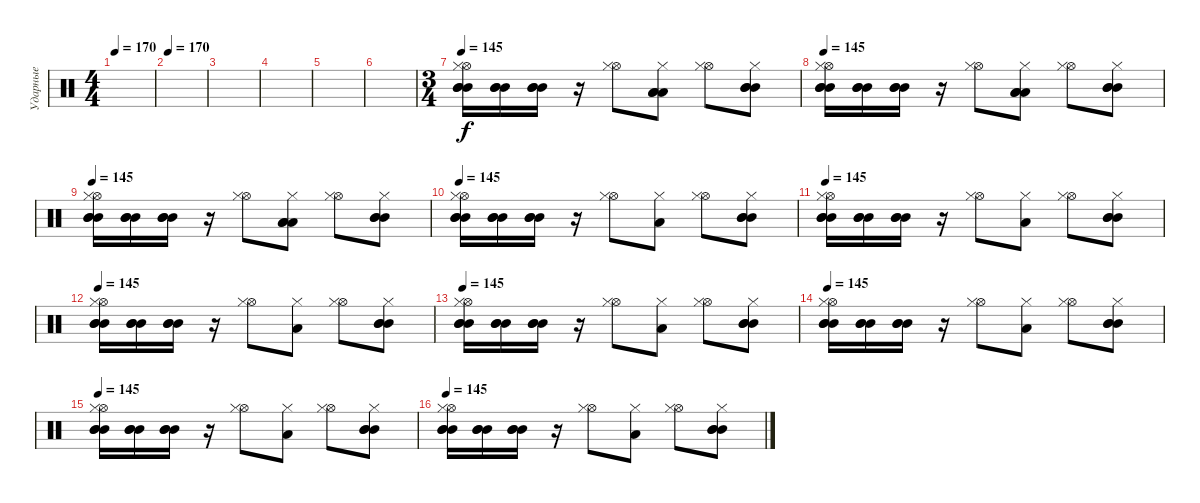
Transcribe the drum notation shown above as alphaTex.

\track ("Ударные" "Ударные") {instrument percussion}
\staff {score}
\articulation defaults
\ts (4 4)
\tempo 170
\clef neutral
\ks c
|
\tempo 170
|
|
|
|
|
\ts (3 4)
\tempo 145
("Hi-Hat (open)" "Mid Tom (hit)" "Mid Tom (hit)" "Mid Tom (hit)" "Hi-Hat (closed)").16{volume 16} ("Mid Tom (hit)" "Mid Tom (hit)" "Mid Tom (hit)").16 ("Mid Tom (hit)" "Mid Tom (hit)" "Mid Tom (hit)").16 r.16 ("Hi-Hat (open)" "Hi-Hat (closed)").8 ("Low Tom (hit)" "Low Tom (hit)" "Low Tom (hit)" "Hi-Hat (closed)").8 ("Hi-Hat (open)" "Hi-Hat (closed)").8 ("Mid Tom (hit)" "Mid Tom (hit)" "Mid Tom (hit)" "Hi-Hat (closed)").8 |
\tempo 145
("Hi-Hat (open)" "Mid Tom (hit)" "Mid Tom (hit)" "Mid Tom (hit)" "Hi-Hat (closed)").16 ("Mid Tom (hit)" "Mid Tom (hit)" "Mid Tom (hit)").16 ("Mid Tom (hit)" "Mid Tom (hit)" "Mid Tom (hit)").16 r.16 ("Hi-Hat (open)" "Hi-Hat (closed)").8 ("Low Tom (hit)" "Low Tom (hit)" "Low Tom (hit)" "Hi-Hat (closed)").8 ("Hi-Hat (open)" "Hi-Hat (closed)").8 ("Mid Tom (hit)" "Mid Tom (hit)" "Mid Tom (hit)" "Hi-Hat (closed)").8 |
\tempo 145
("Hi-Hat (open)" "Mid Tom (hit)" "Mid Tom (hit)" "Mid Tom (hit)" "Hi-Hat (closed)").16 ("Mid Tom (hit)" "Mid Tom (hit)" "Mid Tom (hit)").16 ("Mid Tom (hit)" "Mid Tom (hit)" "Mid Tom (hit)").16 r.16 ("Hi-Hat (open)" "Hi-Hat (closed)").8 ("Low Tom (hit)" "Low Tom (hit)" "Low Tom (hit)" "Hi-Hat (closed)").8 ("Hi-Hat (open)" "Hi-Hat (closed)").8 ("Mid Tom (hit)" "Mid Tom (hit)" "Mid Tom (hit)" "Hi-Hat (closed)").8 |
\tempo 145
("Hi-Hat (open)" "Mid Tom (hit)" "Mid Tom (hit)" "Mid Tom (hit)" "Hi-Hat (closed)").16 ("Mid Tom (hit)" "Mid Tom (hit)" "Mid Tom (hit)").16 ("Mid Tom (hit)" "Mid Tom (hit)" "Mid Tom (hit)").16 r.16 ("Hi-Hat (open)" "Hi-Hat (closed)").8 ("Low Tom (hit)" "Hi-Hat (closed)").8 ("Hi-Hat (open)" "Hi-Hat (closed)").8 ("Mid Tom (hit)" "Mid Tom (hit)" "Mid Tom (hit)" "Hi-Hat (closed)").8 |
\tempo 145
("Hi-Hat (open)" "Mid Tom (hit)" "Mid Tom (hit)" "Mid Tom (hit)" "Hi-Hat (closed)").16 ("Mid Tom (hit)" "Mid Tom (hit)" "Mid Tom (hit)").16 ("Mid Tom (hit)" "Mid Tom (hit)" "Mid Tom (hit)").16 r.16 ("Hi-Hat (open)" "Hi-Hat (closed)").8 ("Low Tom (hit)" "Hi-Hat (closed)").8 ("Hi-Hat (open)" "Hi-Hat (closed)").8 ("Mid Tom (hit)" "Mid Tom (hit)" "Mid Tom (hit)" "Hi-Hat (closed)").8 |
\tempo 145
("Hi-Hat (open)" "Mid Tom (hit)" "Mid Tom (hit)" "Mid Tom (hit)" "Hi-Hat (closed)").16 ("Mid Tom (hit)" "Mid Tom (hit)" "Mid Tom (hit)").16 ("Mid Tom (hit)" "Mid Tom (hit)" "Mid Tom (hit)").16 r.16 ("Hi-Hat (open)" "Hi-Hat (closed)").8 ("Low Tom (hit)" "Hi-Hat (closed)").8 ("Hi-Hat (open)" "Hi-Hat (closed)").8 ("Mid Tom (hit)" "Mid Tom (hit)" "Mid Tom (hit)" "Hi-Hat (closed)").8 |
\tempo 145
("Hi-Hat (open)" "Mid Tom (hit)" "Mid Tom (hit)" "Mid Tom (hit)" "Hi-Hat (closed)").16 ("Mid Tom (hit)" "Mid Tom (hit)" "Mid Tom (hit)").16 ("Mid Tom (hit)" "Mid Tom (hit)" "Mid Tom (hit)").16 r.16 ("Hi-Hat (open)" "Hi-Hat (closed)").8 ("Low Tom (hit)" "Hi-Hat (closed)").8 ("Hi-Hat (open)" "Hi-Hat (closed)").8 ("Mid Tom (hit)" "Mid Tom (hit)" "Mid Tom (hit)" "Hi-Hat (closed)").8 |
\tempo 145
("Hi-Hat (open)" "Mid Tom (hit)" "Mid Tom (hit)" "Mid Tom (hit)" "Hi-Hat (closed)").16 ("Mid Tom (hit)" "Mid Tom (hit)" "Mid Tom (hit)").16 ("Mid Tom (hit)" "Mid Tom (hit)" "Mid Tom (hit)").16 r.16 ("Hi-Hat (open)" "Hi-Hat (closed)").8 ("Low Tom (hit)" "Hi-Hat (closed)").8 ("Hi-Hat (open)" "Hi-Hat (closed)").8 ("Mid Tom (hit)" "Mid Tom (hit)" "Mid Tom (hit)" "Hi-Hat (closed)").8 |
\tempo 145
("Hi-Hat (open)" "Mid Tom (hit)" "Mid Tom (hit)" "Mid Tom (hit)" "Hi-Hat (closed)").16 ("Mid Tom (hit)" "Mid Tom (hit)" "Mid Tom (hit)").16 ("Mid Tom (hit)" "Mid Tom (hit)" "Mid Tom (hit)").16 r.16 ("Hi-Hat (open)" "Hi-Hat (closed)").8 ("Low Tom (hit)" "Hi-Hat (closed)").8 ("Hi-Hat (open)" "Hi-Hat (closed)").8 ("Mid Tom (hit)" "Mid Tom (hit)" "Mid Tom (hit)" "Hi-Hat (closed)").8 |
\tempo 145
("Hi-Hat (open)" "Mid Tom (hit)" "Mid Tom (hit)" "Mid Tom (hit)" "Hi-Hat (closed)").16 ("Mid Tom (hit)" "Mid Tom (hit)" "Mid Tom (hit)").16 ("Mid Tom (hit)" "Mid Tom (hit)" "Mid Tom (hit)").16 r.16 ("Hi-Hat (open)" "Hi-Hat (closed)").8 ("Low Tom (hit)" "Hi-Hat (closed)").8 ("Hi-Hat (open)" "Hi-Hat (closed)").8 ("Mid Tom (hit)" "Mid Tom (hit)" "Mid Tom (hit)" "Hi-Hat (closed)").8
